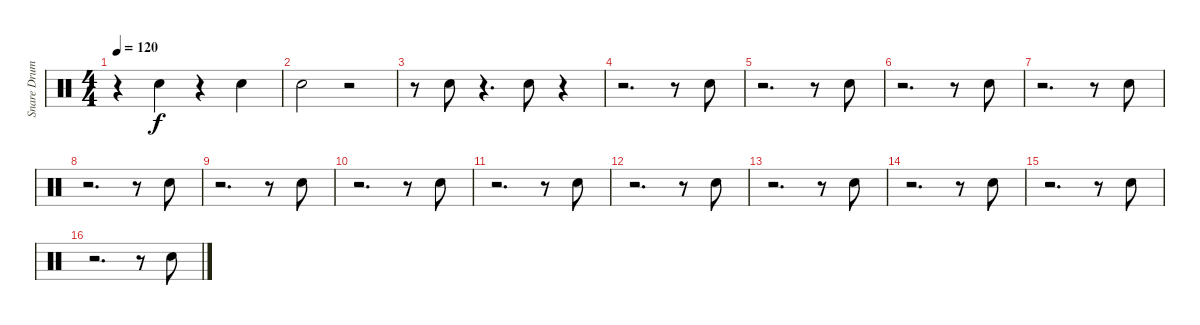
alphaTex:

\track ("Snare Drum" "Snare Drum") {instrument percussion}
\staff {score}
\articulation defaults
\ts (4 4)
\tempo 120
\clef neutral
\ks c
r.4{dy f} "Snare (hit) 2".4 r.4 "Snare (hit) 2".4 |
"Snare (hit) 2".2 r.2 |
r.8 "Snare (hit) 2".8 r.4{d} "Snare (hit) 2".8 r.4 |
r.2{d} r.8 "Snare (hit) 2".8 |
r.2{d} r.8 "Snare (hit) 2".8 |
r.2{d} r.8 "Snare (hit) 2".8 |
r.2{d} r.8 "Snare (hit) 2".8 |
r.2{d} r.8 "Snare (hit) 2".8 |
r.2{d} r.8 "Snare (hit) 2".8 |
r.2{d} r.8 "Snare (hit) 2".8 |
r.2{d} r.8 "Snare (hit) 2".8 |
r.2{d} r.8 "Snare (hit) 2".8 |
r.2{d} r.8 "Snare (hit) 2".8 |
r.2{d} r.8 "Snare (hit) 2".8 |
r.2{d} r.8 "Snare (hit) 2".8 |
r.2{d} r.8 "Snare (hit) 2".8
